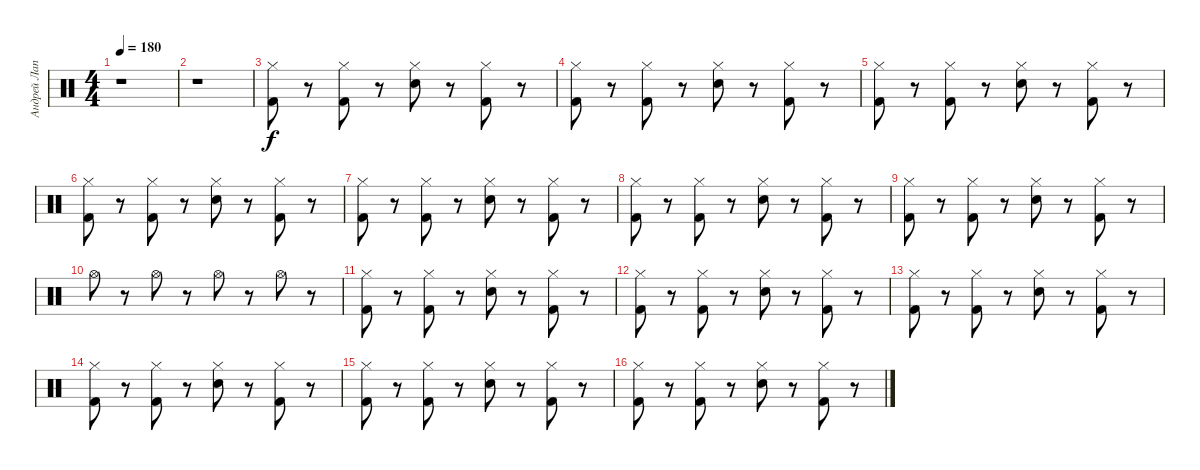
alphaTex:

\track ("Андрей Лаптев" "Андрей Лап") {instrument percussion}
\staff {score}
\articulation defaults
\ts (4 4)
\tempo 180
\clef neutral
\ks c
r.1{dy f} |
r.1 |
("Kick (hit) 2" "Hi-Hat (closed)").8 r.8 ("Kick (hit) 2" "Hi-Hat (closed)").8 r.8 ("Snare (hit) 2" "Hi-Hat (closed)").8 r.8 ("Kick (hit) 2" "Hi-Hat (closed)").8 r.8 |
("Kick (hit) 2" "Hi-Hat (closed)").8 r.8 ("Kick (hit) 2" "Hi-Hat (closed)").8 r.8 ("Snare (hit) 2" "Hi-Hat (closed)").8 r.8 ("Kick (hit) 2" "Hi-Hat (closed)").8 r.8 |
("Kick (hit) 2" "Hi-Hat (closed)").8 r.8 ("Kick (hit) 2" "Hi-Hat (closed)").8 r.8 ("Snare (hit) 2" "Hi-Hat (closed)").8 r.8 ("Kick (hit) 2" "Hi-Hat (closed)").8 r.8 |
("Kick (hit) 2" "Hi-Hat (closed)").8 r.8 ("Kick (hit) 2" "Hi-Hat (closed)").8 r.8 ("Snare (hit) 2" "Hi-Hat (closed)").8 r.8 ("Kick (hit) 2" "Hi-Hat (closed)").8 r.8 |
("Kick (hit) 2" "Hi-Hat (closed)").8 r.8 ("Kick (hit) 2" "Hi-Hat (closed)").8 r.8 ("Snare (hit) 2" "Hi-Hat (closed)").8 r.8 ("Kick (hit) 2" "Hi-Hat (closed)").8 r.8 |
("Kick (hit) 2" "Hi-Hat (closed)").8 r.8 ("Kick (hit) 2" "Hi-Hat (closed)").8 r.8 ("Snare (hit) 2" "Hi-Hat (closed)").8 r.8 ("Kick (hit) 2" "Hi-Hat (closed)").8 r.8 |
("Kick (hit) 2" "Hi-Hat (closed)").8 r.8 ("Kick (hit) 2" "Hi-Hat (closed)").8 r.8 ("Snare (hit) 2" "Hi-Hat (closed)").8 r.8 ("Kick (hit) 2" "Hi-Hat (closed)").8 r.8 |
"Hi-Hat (open)".8 r.8 "Hi-Hat (open)".8 r.8 "Hi-Hat (open)".8 r.8 "Hi-Hat (open)".8 r.8 |
("Kick (hit) 2" "Hi-Hat (closed)").8 r.8 ("Kick (hit) 2" "Hi-Hat (closed)").8 r.8 ("Snare (hit) 2" "Hi-Hat (closed)").8 r.8 ("Kick (hit) 2" "Hi-Hat (closed)").8 r.8 |
("Kick (hit) 2" "Hi-Hat (closed)").8 r.8 ("Kick (hit) 2" "Hi-Hat (closed)").8 r.8 ("Snare (hit) 2" "Hi-Hat (closed)").8 r.8 ("Kick (hit) 2" "Hi-Hat (closed)").8 r.8 |
("Kick (hit) 2" "Hi-Hat (closed)").8 r.8 ("Kick (hit) 2" "Hi-Hat (closed)").8 r.8 ("Snare (hit) 2" "Hi-Hat (closed)").8 r.8 ("Kick (hit) 2" "Hi-Hat (closed)").8 r.8 |
("Kick (hit) 2" "Hi-Hat (closed)").8 r.8 ("Kick (hit) 2" "Hi-Hat (closed)").8 r.8 ("Snare (hit) 2" "Hi-Hat (closed)").8 r.8 ("Kick (hit) 2" "Hi-Hat (closed)").8 r.8 |
("Kick (hit) 2" "Hi-Hat (closed)").8 r.8 ("Kick (hit) 2" "Hi-Hat (closed)").8 r.8 ("Snare (hit) 2" "Hi-Hat (closed)").8 r.8 ("Kick (hit) 2" "Hi-Hat (closed)").8 r.8 |
("Kick (hit) 2" "Hi-Hat (closed)").8 r.8 ("Kick (hit) 2" "Hi-Hat (closed)").8 r.8 ("Snare (hit) 2" "Hi-Hat (closed)").8 r.8 ("Kick (hit) 2" "Hi-Hat (closed)").8 r.8
